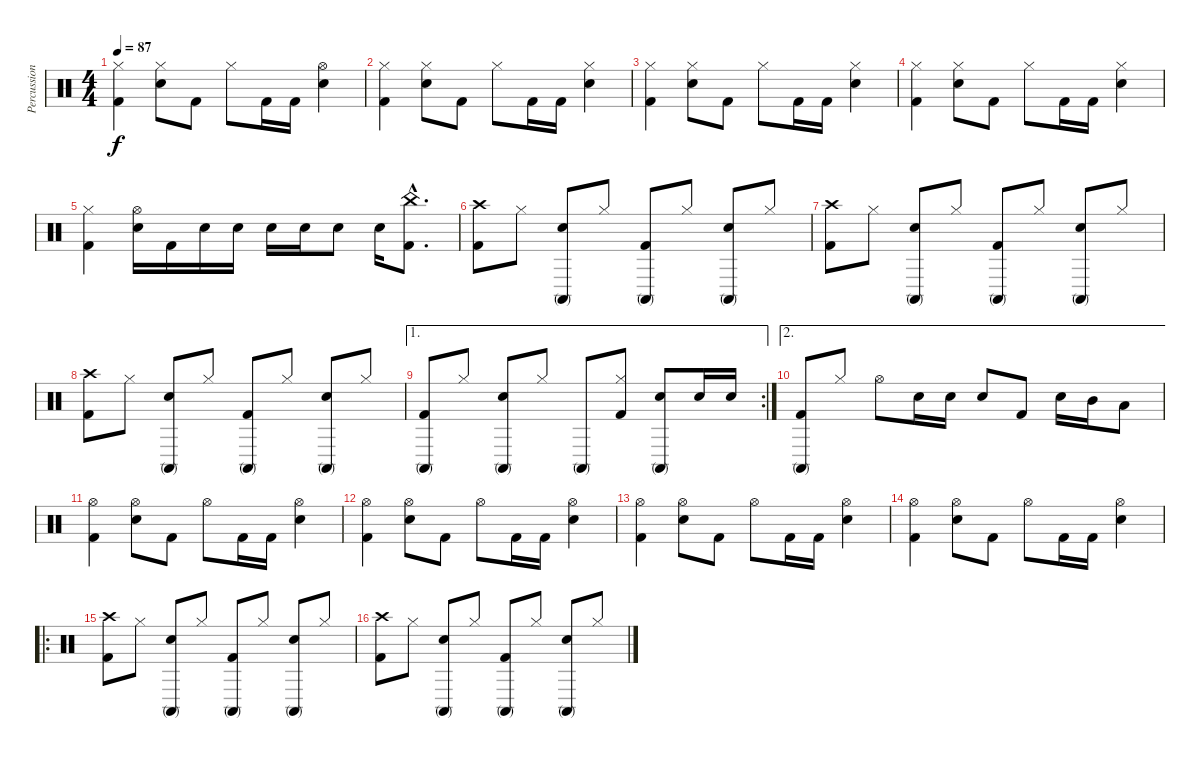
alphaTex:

\track ("Percussions" "Percussion") {instrument percussion}
\staff {score}
\articulation defaults
\ts (4 4)
\tempo 87
\clef neutral
\ks c
("Hi-Hat (closed)" "Kick (hit) 2").4{dy f} ("Hi-Hat (closed)" "Snare (hit) 2").8 "Kick (hit) 2".8 "Hi-Hat (closed)".8 "Kick (hit) 2".16 "Kick (hit) 2".16 ("Hi-Hat (open)" "Snare (hit) 2").4 |
("Hi-Hat (closed)" "Kick (hit) 2").4 ("Hi-Hat (closed)" "Snare (hit) 2").8 "Kick (hit) 2".8 "Hi-Hat (closed)".8 "Kick (hit) 2".16 "Kick (hit) 2".16 ("Hi-Hat (closed)" "Snare (hit) 2").4 |
("Hi-Hat (closed)" "Kick (hit) 2").4 ("Hi-Hat (closed)" "Snare (hit) 2").8 "Kick (hit) 2".8 "Hi-Hat (closed)".8 "Kick (hit) 2".16 "Kick (hit) 2".16 ("Hi-Hat (closed)" "Snare (hit) 2").4 |
("Hi-Hat (closed)" "Kick (hit) 2").4 ("Hi-Hat (closed)" "Snare (hit) 2").8 "Kick (hit) 2".8 "Hi-Hat (closed)".8 "Kick (hit) 2".16 "Kick (hit) 2".16 ("Hi-Hat (closed)" "Snare (hit) 2").4 |
("Hi-Hat (closed)" "Kick (hit) 2").4 ("Hi-Hat (open)" "Snare (hit) 2").16 "Kick (hit) 2".16 "Snare (hit) 2".16 "Snare (hit) 2".16 "Snare (hit) 2".16 "Snare (hit) 2".16 "Snare (hit) 2".8 "Snare (hit) 2".16 ("China (hit)"{hac} "Kick (hit) 2"{hac}).8{d} |
("Crash high (hit)" "Kick (hit) 2").8 "Hi-Hat (closed)".8 ("Conga high (mute)" "Snare (hit) 2").8 "Hi-Hat (closed)".8 ("Conga high (mute)" "Kick (hit) 2").8 "Hi-Hat (closed)".8 ("Conga high (mute)" "Snare (hit) 2").8 "Hi-Hat (closed)".8 |
("Crash high (hit)" "Kick (hit) 2").8 "Hi-Hat (closed)".8 ("Conga high (mute)" "Snare (hit) 2").8 "Hi-Hat (closed)".8 ("Conga high (mute)" "Kick (hit) 2").8 "Hi-Hat (closed)".8 ("Conga high (mute)" "Snare (hit) 2").8 "Hi-Hat (closed)".8 |
("Crash high (hit)" "Kick (hit) 2").8 "Hi-Hat (closed)".8 ("Conga high (mute)" "Snare (hit) 2").8 "Hi-Hat (closed)".8 ("Conga high (mute)" "Kick (hit) 2").8 "Hi-Hat (closed)".8 ("Conga high (mute)" "Snare (hit) 2").8 "Hi-Hat (closed)".8 |
\ae 1
\rc 2
("Conga high (mute)" "Kick (hit) 2").8 "Hi-Hat (closed)".8 ("Conga high (mute)" "Snare (hit) 2").8 "Hi-Hat (closed)".8 "Conga high (mute)".8 ("Hi-Hat (closed)" "Kick (hit) 2").8 ("Conga high (mute)" "Snare (hit) 2").8 "Snare (hit) 2".16 "Snare (hit) 2".16 |
\ae 2
("Conga high (mute)" "Kick (hit) 2").8 "Hi-Hat (closed)".8 "Hi-Hat (open)".8 "Snare (hit) 2".16 "Snare (hit) 2".16 "Snare (hit) 2".8 "Kick (hit) 2".8 "Snare (hit) 2".16 "Mid Tom (hit)".16 "Low Tom (hit)".8 |
("Hi-Hat (open)" "Kick (hit) 2").4 ("Hi-Hat (open)" "Snare (hit) 2").8 "Kick (hit) 2".8 "Hi-Hat (open)".8 "Kick (hit) 2".16 "Kick (hit) 2".16 ("Hi-Hat (open)" "Snare (hit) 2").4 |
("Hi-Hat (open)" "Kick (hit) 2").4 ("Hi-Hat (open)" "Snare (hit) 2").8 "Kick (hit) 2".8 "Hi-Hat (open)".8 "Kick (hit) 2".16 "Kick (hit) 2".16 ("Hi-Hat (open)" "Snare (hit) 2").4 |
("Hi-Hat (open)" "Kick (hit) 2").4 ("Hi-Hat (open)" "Snare (hit) 2").8 "Kick (hit) 2".8 "Hi-Hat (open)".8 "Kick (hit) 2".16 "Kick (hit) 2".16 ("Hi-Hat (open)" "Snare (hit) 2").4 |
("Hi-Hat (open)" "Kick (hit) 2").4 ("Hi-Hat (open)" "Snare (hit) 2").8 "Kick (hit) 2".8 "Hi-Hat (open)".8 "Kick (hit) 2".16 "Kick (hit) 2".16 ("Hi-Hat (open)" "Snare (hit) 2").4 |
\ro
("Crash high (hit)" "Kick (hit) 2").8 "Hi-Hat (closed)".8 ("Conga high (mute)" "Snare (hit) 2").8 "Hi-Hat (closed)".8 ("Conga high (mute)" "Kick (hit) 2").8 "Hi-Hat (closed)".8 ("Conga high (mute)" "Snare (hit) 2").8 "Hi-Hat (closed)".8 |
("Crash high (hit)" "Kick (hit) 2").8 "Hi-Hat (closed)".8 ("Conga high (mute)" "Snare (hit) 2").8 "Hi-Hat (closed)".8 ("Conga high (mute)" "Kick (hit) 2").8 "Hi-Hat (closed)".8 ("Conga high (mute)" "Snare (hit) 2").8 "Hi-Hat (closed)".8
